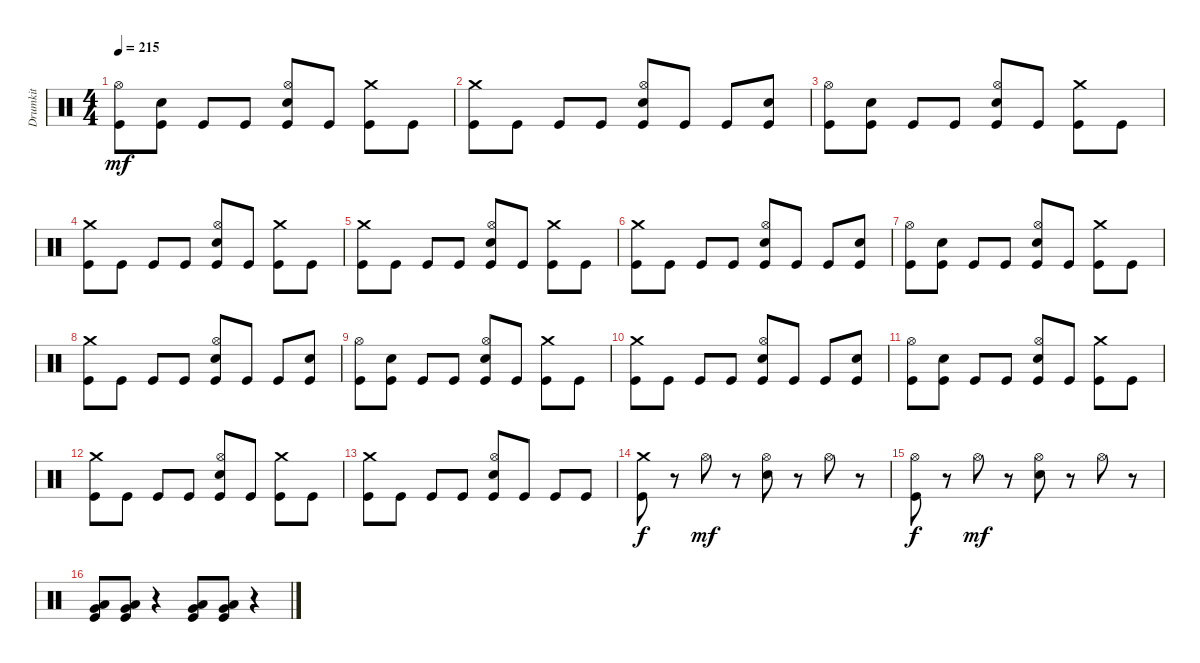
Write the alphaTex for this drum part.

\track ("Drumkit" "Drumkit") {instrument percussion}
\staff {score}
\articulation defaults
\ts (4 4)
\tempo 215
\clef neutral
\ks c
("Kick (hit)" "Hi-Hat (open)").8{dy mf} ("Kick (hit)" "Snare (hit) 2").8 "Kick (hit)".8 "Kick (hit)".8 ("Kick (hit)" "Snare (hit) 2" "Hi-Hat (open)").8 "Kick (hit)".8 ("Kick (hit)" "Crash medium (hit)").8 "Kick (hit)".8 |
("Kick (hit)" "Crash medium (hit)").8 "Kick (hit)".8 "Kick (hit)".8 "Kick (hit)".8 ("Kick (hit)" "Snare (hit) 2" "Hi-Hat (open)").8 "Kick (hit)".8 "Kick (hit)".8 ("Kick (hit)" "Snare (hit) 2").8 |
("Kick (hit)" "Hi-Hat (open)").8 ("Kick (hit)" "Snare (hit) 2").8 "Kick (hit)".8 "Kick (hit)".8 ("Kick (hit)" "Snare (hit) 2" "Hi-Hat (open)").8 "Kick (hit)".8 ("Kick (hit)" "Crash medium (hit)").8 "Kick (hit)".8 |
("Kick (hit)" "Crash medium (hit)").8 "Kick (hit)".8 "Kick (hit)".8 "Kick (hit)".8 ("Kick (hit)" "Snare (hit) 2" "Hi-Hat (open)").8 "Kick (hit)".8 ("Kick (hit)" "Crash medium (hit)").8 "Kick (hit)".8 |
("Kick (hit)" "Crash medium (hit)").8 "Kick (hit)".8 "Kick (hit)".8 "Kick (hit)".8 ("Kick (hit)" "Snare (hit) 2" "Hi-Hat (open)").8 "Kick (hit)".8 ("Kick (hit)" "Crash medium (hit)").8 "Kick (hit)".8 |
("Kick (hit)" "Crash medium (hit)").8 "Kick (hit)".8 "Kick (hit)".8 "Kick (hit)".8 ("Kick (hit)" "Snare (hit) 2" "Hi-Hat (open)").8 "Kick (hit)".8 "Kick (hit)".8 ("Kick (hit)" "Snare (hit) 2").8 |
("Kick (hit)" "Hi-Hat (open)").8 ("Kick (hit)" "Snare (hit) 2").8 "Kick (hit)".8 "Kick (hit)".8 ("Kick (hit)" "Snare (hit) 2" "Hi-Hat (open)").8 "Kick (hit)".8 ("Kick (hit)" "Crash medium (hit)").8 "Kick (hit)".8 |
("Kick (hit)" "Crash medium (hit)").8 "Kick (hit)".8 "Kick (hit)".8 "Kick (hit)".8 ("Kick (hit)" "Snare (hit) 2" "Hi-Hat (open)").8 "Kick (hit)".8 "Kick (hit)".8 ("Kick (hit)" "Snare (hit) 2").8 |
("Kick (hit)" "Hi-Hat (open)").8 ("Kick (hit)" "Snare (hit) 2").8 "Kick (hit)".8 "Kick (hit)".8 ("Kick (hit)" "Snare (hit) 2" "Hi-Hat (open)").8 "Kick (hit)".8 ("Kick (hit)" "Crash medium (hit)").8 "Kick (hit)".8 |
("Kick (hit)" "Crash medium (hit)").8 "Kick (hit)".8 "Kick (hit)".8 "Kick (hit)".8 ("Kick (hit)" "Snare (hit) 2" "Hi-Hat (open)").8 "Kick (hit)".8 "Kick (hit)".8 ("Kick (hit)" "Snare (hit) 2").8 |
("Kick (hit)" "Hi-Hat (open)").8 ("Kick (hit)" "Snare (hit) 2").8 "Kick (hit)".8 "Kick (hit)".8 ("Kick (hit)" "Snare (hit) 2" "Hi-Hat (open)").8 "Kick (hit)".8 ("Kick (hit)" "Crash medium (hit)").8 "Kick (hit)".8 |
("Kick (hit)" "Crash medium (hit)").8 "Kick (hit)".8 "Kick (hit)".8 "Kick (hit)".8 ("Kick (hit)" "Snare (hit) 2" "Hi-Hat (open)").8 "Kick (hit)".8 ("Kick (hit)" "Crash medium (hit)").8 "Kick (hit)".8 |
("Kick (hit)" "Crash medium (hit)").8 "Kick (hit)".8 "Kick (hit)".8 "Kick (hit)".8 ("Kick (hit)" "Snare (hit) 2" "Hi-Hat (open)").8 "Kick (hit)".8 "Kick (hit)".8 "Kick (hit)".8 |
("Kick (hit)" "Crash medium (hit)").8{dy f} r.8 "Hi-Hat (open)".8{dy mf} r.8 ("Snare (hit) 2" "Hi-Hat (open)").8 r.8 "Hi-Hat (open)".8 r.8 |
("Kick (hit)" "Hi-Hat (open)").8{dy f} r.8 "Hi-Hat (open)".8{dy mf} r.8 ("Snare (hit) 2" "Hi-Hat (open)").8 r.8 "Hi-Hat (open)".8 r.8 |
("Kick (hit)" "Very Low Tom (hit)" "Low Tom (hit)").8 ("Kick (hit)" "Very Low Tom (hit)" "Low Tom (hit)").8 r.4 ("Kick (hit)" "Very Low Tom (hit)" "Low Tom (hit)").8 ("Kick (hit)" "Very Low Tom (hit)" "Low Tom (hit)").8 r.4
